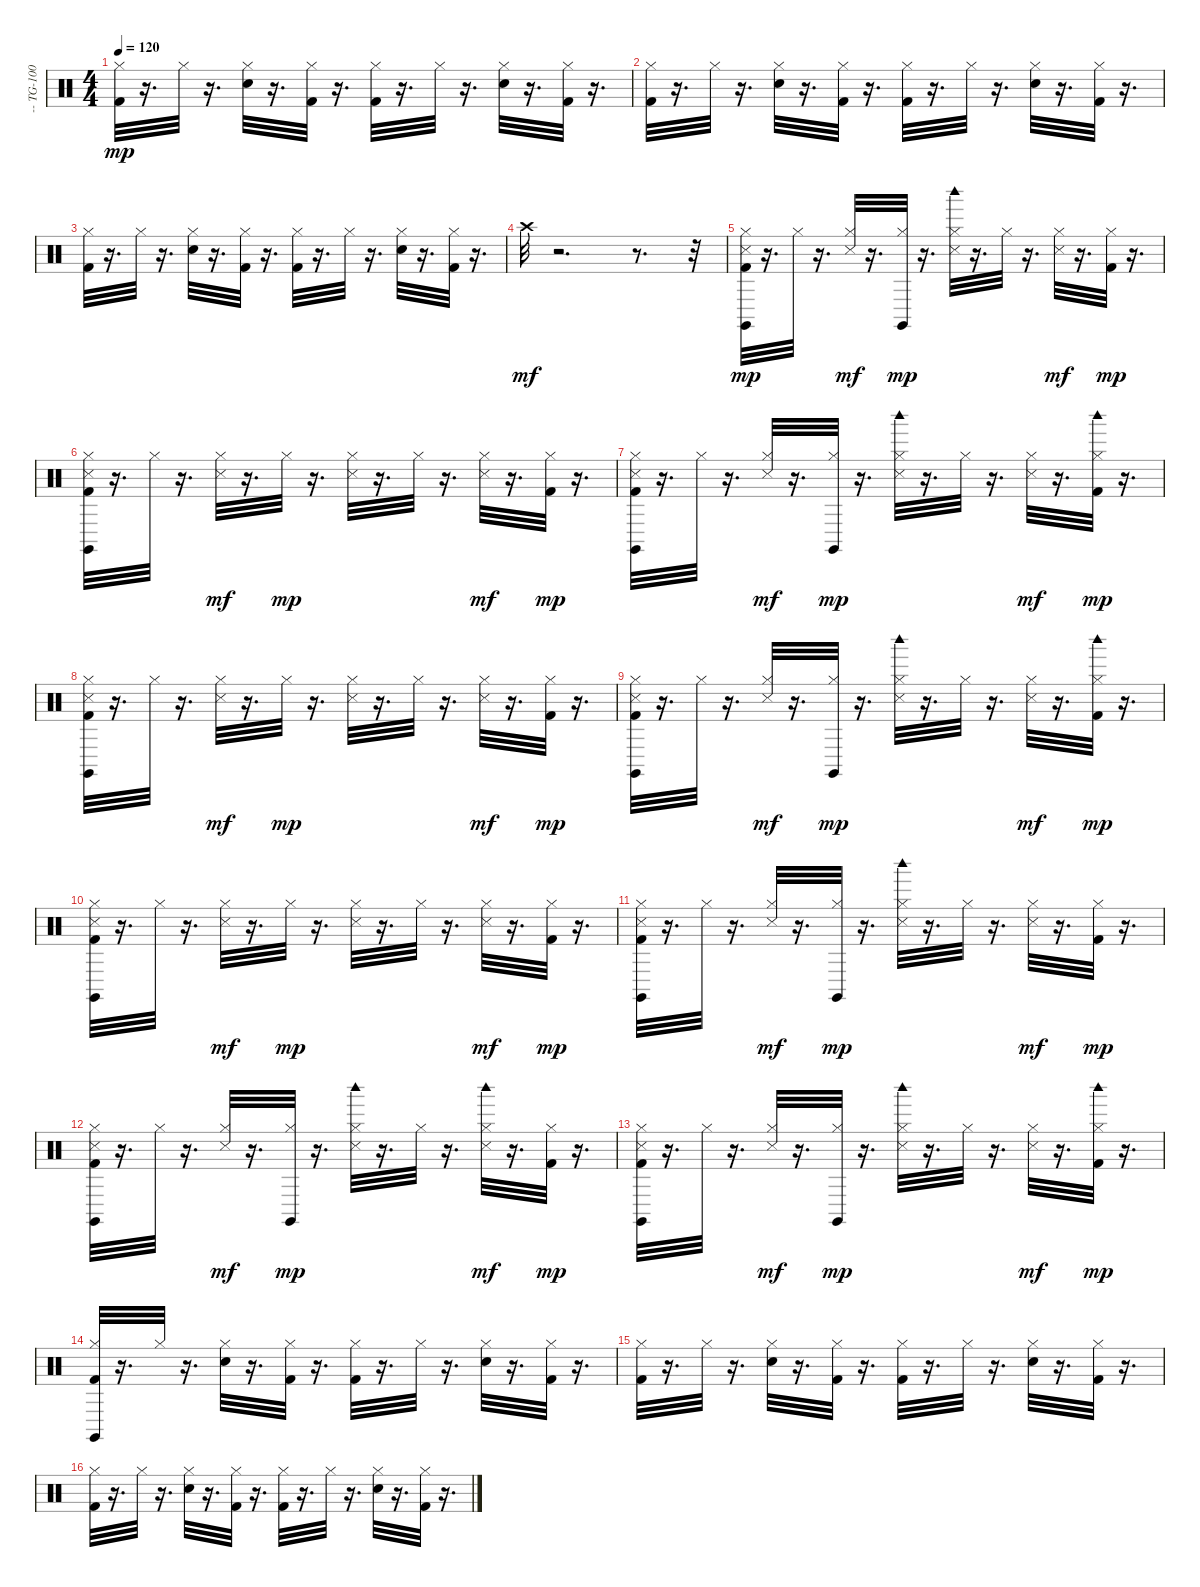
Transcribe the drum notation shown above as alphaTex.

\track ("-- TG-100 GS Drum --" "-- TG-100 ") {instrument percussion}
\staff {score}
\articulation defaults
\ts (4 4)
\tempo 120
\clef neutral
\ks c
("Hi-Hat (closed)" "Kick (hit) 2").32{dy mp} r.16{d} "Hi-Hat (closed)".32 r.16{d} ("Hi-Hat (closed)" "Snare (hit) 2").32 r.16{d} ("Hi-Hat (closed)" "Kick (hit) 2").32 r.16{d} ("Hi-Hat (closed)" "Kick (hit) 2").32 r.16{d} "Hi-Hat (closed)".32 r.16{d} ("Hi-Hat (closed)" "Snare (hit) 2").32 r.16{d} ("Hi-Hat (closed)" "Kick (hit) 2").32 r.16{d} |
("Hi-Hat (closed)" "Kick (hit) 2").32 r.16{d} "Hi-Hat (closed)".32 r.16{d} ("Hi-Hat (closed)" "Snare (hit) 2").32 r.16{d} ("Hi-Hat (closed)" "Kick (hit) 2").32 r.16{d} ("Hi-Hat (closed)" "Kick (hit) 2").32 r.16{d} "Hi-Hat (closed)".32 r.16{d} ("Hi-Hat (closed)" "Snare (hit) 2").32 r.16{d} ("Hi-Hat (closed)" "Kick (hit) 2").32 r.16{d} |
("Hi-Hat (closed)" "Kick (hit) 2").32 r.16{d} "Hi-Hat (closed)".32 r.16{d} ("Hi-Hat (closed)" "Snare (hit) 2").32 r.16{d} ("Hi-Hat (closed)" "Kick (hit) 2").32 r.16{d} ("Hi-Hat (closed)" "Kick (hit) 2").32 r.16{d} "Hi-Hat (closed)".32 r.16{d} ("Hi-Hat (closed)" "Snare (hit) 2").32 r.16{d} ("Hi-Hat (closed)" "Kick (hit) 2").32 r.16{d} |
"Crash high (hit)".32{dy mf} r.2{d} r.8{d} r.32 |
("Hi-Hat (closed)" "Claves (hit)" "Snare (side stick) 3" "Kick (hit) 2").32{dy mp} r.16{d} "Hi-Hat (closed)".32 r.16{d} ("Snare (side stick) 3" "Hi-Hat (closed)").32{dy mf} r.16{d} ("Hi-Hat (closed)" "Claves (hit)").32{dy mp} r.16{d} ("Hi-Hat (closed)" "Woodblock high (hit)" "Snare (side stick) 3").32 r.16{d} "Hi-Hat (closed)".32 r.16{d} ("Snare (side stick) 3" "Hi-Hat (closed)").32{dy mf} r.16{d} ("Hi-Hat (closed)" "Kick (hit) 2").32{dy mp} r.16{d} |
("Hi-Hat (closed)" "Claves (hit)" "Snare (side stick) 3" "Kick (hit) 2").32 r.16{d} "Hi-Hat (closed)".32 r.16{d} ("Snare (side stick) 3" "Hi-Hat (closed)").32{dy mf} r.16{d} "Hi-Hat (closed)".32{dy mp} r.16{d} ("Hi-Hat (closed)" "Snare (side stick) 3").32 r.16{d} "Hi-Hat (closed)".32 r.16{d} ("Snare (side stick) 3" "Hi-Hat (closed)").32{dy mf} r.16{d} ("Hi-Hat (closed)" "Kick (hit) 2").32{dy mp} r.16{d} |
("Hi-Hat (closed)" "Claves (hit)" "Snare (side stick) 3" "Kick (hit) 2").32 r.16{d} "Hi-Hat (closed)".32 r.16{d} ("Snare (side stick) 3" "Hi-Hat (closed)").32{dy mf} r.16{d} ("Hi-Hat (closed)" "Claves (hit)").32{dy mp} r.16{d} ("Hi-Hat (closed)" "Woodblock high (hit)" "Snare (side stick) 3").32 r.16{d} "Hi-Hat (closed)".32 r.16{d} ("Snare (side stick) 3" "Hi-Hat (closed)").32{dy mf} r.16{d} ("Hi-Hat (closed)" "Woodblock high (hit)" "Kick (hit) 2").32{dy mp} r.16{d} |
("Hi-Hat (closed)" "Claves (hit)" "Snare (side stick) 3" "Kick (hit) 2").32 r.16{d} "Hi-Hat (closed)".32 r.16{d} ("Snare (side stick) 3" "Hi-Hat (closed)").32{dy mf} r.16{d} "Hi-Hat (closed)".32{dy mp} r.16{d} ("Hi-Hat (closed)" "Snare (side stick) 3").32 r.16{d} "Hi-Hat (closed)".32 r.16{d} ("Snare (side stick) 3" "Hi-Hat (closed)").32{dy mf} r.16{d} ("Hi-Hat (closed)" "Kick (hit) 2").32{dy mp} r.16{d} |
("Hi-Hat (closed)" "Claves (hit)" "Snare (side stick) 3" "Kick (hit) 2").32 r.16{d} "Hi-Hat (closed)".32 r.16{d} ("Snare (side stick) 3" "Hi-Hat (closed)").32{dy mf} r.16{d} ("Hi-Hat (closed)" "Claves (hit)").32{dy mp} r.16{d} ("Hi-Hat (closed)" "Woodblock high (hit)" "Snare (side stick) 3").32 r.16{d} "Hi-Hat (closed)".32 r.16{d} ("Snare (side stick) 3" "Hi-Hat (closed)").32{dy mf} r.16{d} ("Hi-Hat (closed)" "Woodblock high (hit)" "Kick (hit) 2").32{dy mp} r.16{d} |
("Hi-Hat (closed)" "Claves (hit)" "Snare (side stick) 3" "Kick (hit) 2").32 r.16{d} "Hi-Hat (closed)".32 r.16{d} ("Snare (side stick) 3" "Hi-Hat (closed)").32{dy mf} r.16{d} "Hi-Hat (closed)".32{dy mp} r.16{d} ("Hi-Hat (closed)" "Snare (side stick) 3").32 r.16{d} "Hi-Hat (closed)".32 r.16{d} ("Snare (side stick) 3" "Hi-Hat (closed)").32{dy mf} r.16{d} ("Hi-Hat (closed)" "Kick (hit) 2").32{dy mp} r.16{d} |
("Hi-Hat (closed)" "Claves (hit)" "Snare (side stick) 3" "Kick (hit) 2").32 r.16{d} "Hi-Hat (closed)".32 r.16{d} ("Snare (side stick) 3" "Hi-Hat (closed)").32{dy mf} r.16{d} ("Hi-Hat (closed)" "Claves (hit)").32{dy mp} r.16{d} ("Hi-Hat (closed)" "Woodblock high (hit)" "Snare (side stick) 3").32 r.16{d} "Hi-Hat (closed)".32 r.16{d} ("Snare (side stick) 3" "Hi-Hat (closed)").32{dy mf} r.16{d} ("Hi-Hat (closed)" "Kick (hit) 2").32{dy mp} r.16{d} |
("Hi-Hat (closed)" "Claves (hit)" "Snare (side stick) 3" "Kick (hit) 2").32 r.16{d} "Hi-Hat (closed)".32 r.16{d} ("Snare (side stick) 3" "Hi-Hat (closed)").32{dy mf} r.16{d} ("Hi-Hat (closed)" "Claves (hit)").32{dy mp} r.16{d} ("Hi-Hat (closed)" "Woodblock high (hit)" "Snare (side stick) 3").32 r.16{d} "Hi-Hat (closed)".32 r.16{d} ("Woodblock high (hit)" "Snare (side stick) 3" "Hi-Hat (closed)").32{dy mf} r.16{d} ("Hi-Hat (closed)" "Kick (hit) 2").32{dy mp} r.16{d} |
("Hi-Hat (closed)" "Claves (hit)" "Snare (side stick) 3" "Kick (hit) 2").32 r.16{d} "Hi-Hat (closed)".32 r.16{d} ("Snare (side stick) 3" "Hi-Hat (closed)").32{dy mf} r.16{d} ("Hi-Hat (closed)" "Claves (hit)").32{dy mp} r.16{d} ("Hi-Hat (closed)" "Woodblock high (hit)" "Snare (side stick) 3").32 r.16{d} "Hi-Hat (closed)".32 r.16{d} ("Snare (side stick) 3" "Hi-Hat (closed)").32{dy mf} r.16{d} ("Hi-Hat (closed)" "Woodblock high (hit)" "Kick (hit) 2").32{dy mp} r.16{d} |
("Hi-Hat (closed)" "Claves (hit)" "Kick (hit) 2").32 r.16{d} "Hi-Hat (closed)".32 r.16{d} ("Hi-Hat (closed)" "Snare (hit) 2").32 r.16{d} ("Hi-Hat (closed)" "Kick (hit) 2").32 r.16{d} ("Hi-Hat (closed)" "Kick (hit) 2").32 r.16{d} "Hi-Hat (closed)".32 r.16{d} ("Hi-Hat (closed)" "Snare (hit) 2").32 r.16{d} ("Hi-Hat (closed)" "Kick (hit) 2").32 r.16{d} |
("Hi-Hat (closed)" "Kick (hit) 2").32 r.16{d} "Hi-Hat (closed)".32 r.16{d} ("Hi-Hat (closed)" "Snare (hit) 2").32 r.16{d} ("Hi-Hat (closed)" "Kick (hit) 2").32 r.16{d} ("Hi-Hat (closed)" "Kick (hit) 2").32 r.16{d} "Hi-Hat (closed)".32 r.16{d} ("Hi-Hat (closed)" "Snare (hit) 2").32 r.16{d} ("Hi-Hat (closed)" "Kick (hit) 2").32 r.16{d} |
("Hi-Hat (closed)" "Kick (hit) 2").32 r.16{d} "Hi-Hat (closed)".32 r.16{d} ("Hi-Hat (closed)" "Snare (hit) 2").32 r.16{d} ("Hi-Hat (closed)" "Kick (hit) 2").32 r.16{d} ("Hi-Hat (closed)" "Kick (hit) 2").32 r.16{d} "Hi-Hat (closed)".32 r.16{d} ("Hi-Hat (closed)" "Snare (hit) 2").32 r.16{d} ("Hi-Hat (closed)" "Kick (hit) 2").32 r.16{d}
